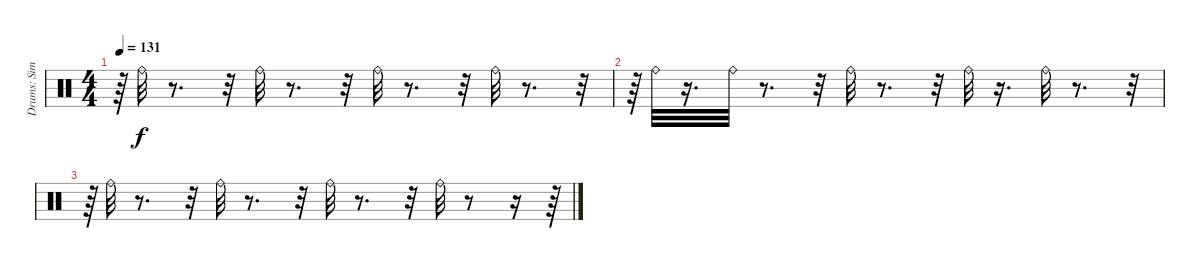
\track ("Drums: Simon Kirke" "Drums: Sim") {instrument percussion}
\staff {score}
\articulation defaults
\ts (4 4)
\tempo 131
\clef neutral
\ks c
r.64{dy f} "Ride (bell)".32{volume 12} r.8{d} r.32 "Ride (bell)".32{volume 11} r.8{d} r.32 "Ride (bell)".32{volume 10} r.8{d} r.32 "Ride (bell)".32{volume 9} r.8{d} r.32 |
r.64 "Ride (bell)".32{volume 8} r.16{d} "Ride (bell)".32{volume 8} r.8{d} r.32 "Ride (bell)".32{volume 7} r.8{d} r.32 "Ride (bell)".32{volume 6} r.16{d} "Ride (bell)".32{volume 5} r.8{d} r.32 |
r.64 "Ride (bell)".32{volume 4} r.8{d} r.32 "Ride (bell)".32{volume 3} r.8{d} r.32 "Ride (bell)".32{volume 2} r.8{d} r.32 "Ride (bell)".32{volume 1} r.8 r.16 r.64
